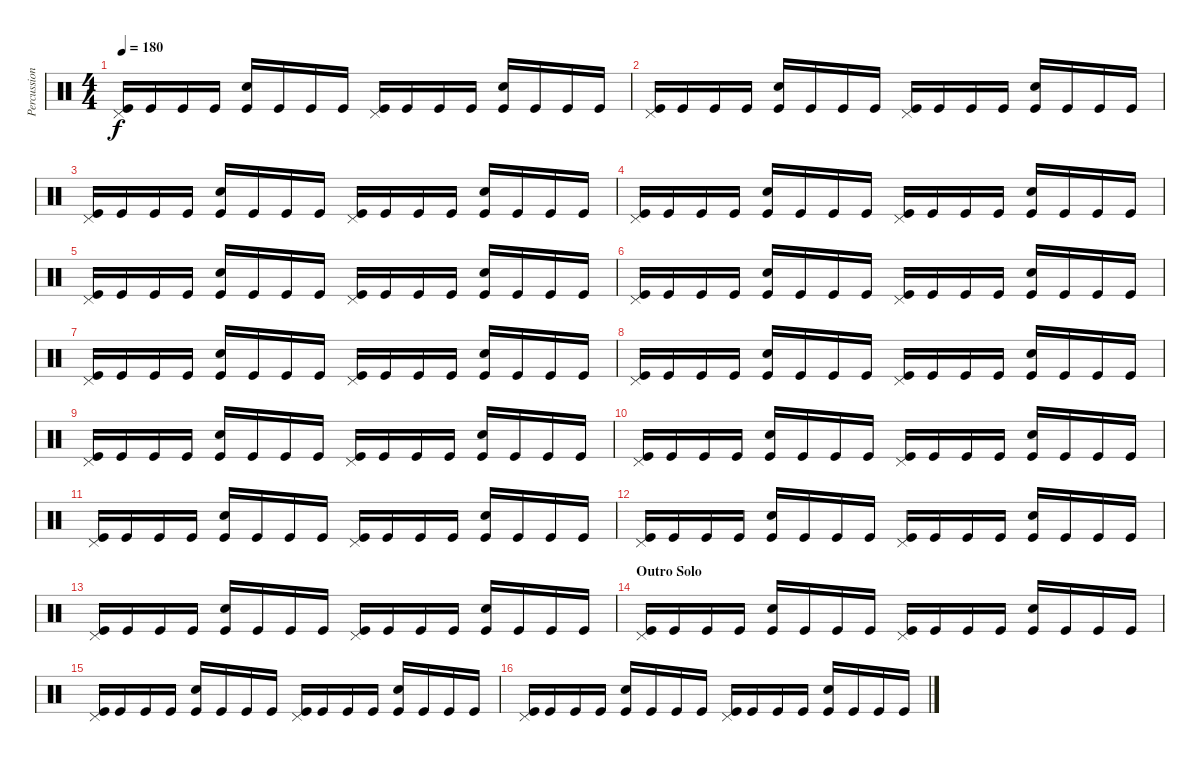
\track ("Percussion" "Percussion") {instrument percussion}
\staff {score}
\articulation defaults
\ts (4 4)
\tempo 180
\clef neutral
\ks c
("Pedal Hi-Hat (hit)" "Kick (hit)").16{dy f} "Kick (hit)".16 "Kick (hit)".16 "Kick (hit)".16 ("Electric Snare (hit)" "Kick (hit)").16 "Kick (hit)".16 "Kick (hit)".16 "Kick (hit)".16 ("Pedal Hi-Hat (hit)" "Kick (hit)").16 "Kick (hit)".16 "Kick (hit)".16 "Kick (hit)".16 ("Electric Snare (hit)" "Kick (hit)").16 "Kick (hit)".16 "Kick (hit)".16 "Kick (hit)".16 |
("Pedal Hi-Hat (hit)" "Kick (hit)").16 "Kick (hit)".16 "Kick (hit)".16 "Kick (hit)".16 ("Electric Snare (hit)" "Kick (hit)").16 "Kick (hit)".16 "Kick (hit)".16 "Kick (hit)".16 ("Pedal Hi-Hat (hit)" "Kick (hit)").16 "Kick (hit)".16 "Kick (hit)".16 "Kick (hit)".16 ("Electric Snare (hit)" "Kick (hit)").16 "Kick (hit)".16 "Kick (hit)".16 "Kick (hit)".16 |
("Pedal Hi-Hat (hit)" "Kick (hit)").16 "Kick (hit)".16 "Kick (hit)".16 "Kick (hit)".16 ("Electric Snare (hit)" "Kick (hit)").16 "Kick (hit)".16 "Kick (hit)".16 "Kick (hit)".16 ("Pedal Hi-Hat (hit)" "Kick (hit)").16 "Kick (hit)".16 "Kick (hit)".16 "Kick (hit)".16 ("Electric Snare (hit)" "Kick (hit)").16 "Kick (hit)".16 "Kick (hit)".16 "Kick (hit)".16 |
("Pedal Hi-Hat (hit)" "Kick (hit)").16 "Kick (hit)".16 "Kick (hit)".16 "Kick (hit)".16 ("Electric Snare (hit)" "Kick (hit)").16 "Kick (hit)".16 "Kick (hit)".16 "Kick (hit)".16 ("Pedal Hi-Hat (hit)" "Kick (hit)").16 "Kick (hit)".16 "Kick (hit)".16 "Kick (hit)".16 ("Electric Snare (hit)" "Kick (hit)").16 "Kick (hit)".16 "Kick (hit)".16 "Kick (hit)".16 |
("Pedal Hi-Hat (hit)" "Kick (hit)").16 "Kick (hit)".16 "Kick (hit)".16 "Kick (hit)".16 ("Electric Snare (hit)" "Kick (hit)").16 "Kick (hit)".16 "Kick (hit)".16 "Kick (hit)".16 ("Pedal Hi-Hat (hit)" "Kick (hit)").16 "Kick (hit)".16 "Kick (hit)".16 "Kick (hit)".16 ("Electric Snare (hit)" "Kick (hit)").16 "Kick (hit)".16 "Kick (hit)".16 "Kick (hit)".16 |
("Pedal Hi-Hat (hit)" "Kick (hit)").16 "Kick (hit)".16 "Kick (hit)".16 "Kick (hit)".16 ("Electric Snare (hit)" "Kick (hit)").16 "Kick (hit)".16 "Kick (hit)".16 "Kick (hit)".16 ("Pedal Hi-Hat (hit)" "Kick (hit)").16 "Kick (hit)".16 "Kick (hit)".16 "Kick (hit)".16 ("Electric Snare (hit)" "Kick (hit)").16 "Kick (hit)".16 "Kick (hit)".16 "Kick (hit)".16 |
("Pedal Hi-Hat (hit)" "Kick (hit)").16 "Kick (hit)".16 "Kick (hit)".16 "Kick (hit)".16 ("Electric Snare (hit)" "Kick (hit)").16 "Kick (hit)".16 "Kick (hit)".16 "Kick (hit)".16 ("Pedal Hi-Hat (hit)" "Kick (hit)").16 "Kick (hit)".16 "Kick (hit)".16 "Kick (hit)".16 ("Electric Snare (hit)" "Kick (hit)").16 "Kick (hit)".16 "Kick (hit)".16 "Kick (hit)".16 |
("Pedal Hi-Hat (hit)" "Kick (hit)").16 "Kick (hit)".16 "Kick (hit)".16 "Kick (hit)".16 ("Electric Snare (hit)" "Kick (hit)").16 "Kick (hit)".16 "Kick (hit)".16 "Kick (hit)".16 ("Pedal Hi-Hat (hit)" "Kick (hit)").16 "Kick (hit)".16 "Kick (hit)".16 "Kick (hit)".16 ("Electric Snare (hit)" "Kick (hit)").16 "Kick (hit)".16 "Kick (hit)".16 "Kick (hit)".16 |
("Pedal Hi-Hat (hit)" "Kick (hit)").16 "Kick (hit)".16 "Kick (hit)".16 "Kick (hit)".16 ("Electric Snare (hit)" "Kick (hit)").16 "Kick (hit)".16 "Kick (hit)".16 "Kick (hit)".16 ("Pedal Hi-Hat (hit)" "Kick (hit)").16 "Kick (hit)".16 "Kick (hit)".16 "Kick (hit)".16 ("Electric Snare (hit)" "Kick (hit)").16 "Kick (hit)".16 "Kick (hit)".16 "Kick (hit)".16 |
("Pedal Hi-Hat (hit)" "Kick (hit)").16 "Kick (hit)".16 "Kick (hit)".16 "Kick (hit)".16 ("Electric Snare (hit)" "Kick (hit)").16 "Kick (hit)".16 "Kick (hit)".16 "Kick (hit)".16 ("Pedal Hi-Hat (hit)" "Kick (hit)").16 "Kick (hit)".16 "Kick (hit)".16 "Kick (hit)".16 ("Electric Snare (hit)" "Kick (hit)").16 "Kick (hit)".16 "Kick (hit)".16 "Kick (hit)".16 |
("Pedal Hi-Hat (hit)" "Kick (hit)").16 "Kick (hit)".16 "Kick (hit)".16 "Kick (hit)".16 ("Electric Snare (hit)" "Kick (hit)").16 "Kick (hit)".16 "Kick (hit)".16 "Kick (hit)".16 ("Pedal Hi-Hat (hit)" "Kick (hit)").16 "Kick (hit)".16 "Kick (hit)".16 "Kick (hit)".16 ("Electric Snare (hit)" "Kick (hit)").16 "Kick (hit)".16 "Kick (hit)".16 "Kick (hit)".16 |
("Pedal Hi-Hat (hit)" "Kick (hit)").16 "Kick (hit)".16 "Kick (hit)".16 "Kick (hit)".16 ("Electric Snare (hit)" "Kick (hit)").16 "Kick (hit)".16 "Kick (hit)".16 "Kick (hit)".16 ("Pedal Hi-Hat (hit)" "Kick (hit)").16 "Kick (hit)".16 "Kick (hit)".16 "Kick (hit)".16 ("Electric Snare (hit)" "Kick (hit)").16 "Kick (hit)".16 "Kick (hit)".16 "Kick (hit)".16 |
("Pedal Hi-Hat (hit)" "Kick (hit)").16 "Kick (hit)".16 "Kick (hit)".16 "Kick (hit)".16 ("Electric Snare (hit)" "Kick (hit)").16 "Kick (hit)".16 "Kick (hit)".16 "Kick (hit)".16 ("Pedal Hi-Hat (hit)" "Kick (hit)").16 "Kick (hit)".16 "Kick (hit)".16 "Kick (hit)".16 ("Electric Snare (hit)" "Kick (hit)").16 "Kick (hit)".16 "Kick (hit)".16 "Kick (hit)".16 |
\section ("" "Outro Solo")
("Pedal Hi-Hat (hit)" "Kick (hit)").16 "Kick (hit)".16 "Kick (hit)".16 "Kick (hit)".16 ("Electric Snare (hit)" "Kick (hit)").16 "Kick (hit)".16 "Kick (hit)".16 "Kick (hit)".16 ("Pedal Hi-Hat (hit)" "Kick (hit)").16 "Kick (hit)".16 "Kick (hit)".16 "Kick (hit)".16 ("Electric Snare (hit)" "Kick (hit)").16 "Kick (hit)".16 "Kick (hit)".16 "Kick (hit)".16 |
("Pedal Hi-Hat (hit)" "Kick (hit)").16 "Kick (hit)".16 "Kick (hit)".16 "Kick (hit)".16 ("Electric Snare (hit)" "Kick (hit)").16 "Kick (hit)".16 "Kick (hit)".16 "Kick (hit)".16 ("Pedal Hi-Hat (hit)" "Kick (hit)").16 "Kick (hit)".16 "Kick (hit)".16 "Kick (hit)".16 ("Electric Snare (hit)" "Kick (hit)").16 "Kick (hit)".16 "Kick (hit)".16 "Kick (hit)".16 |
("Pedal Hi-Hat (hit)" "Kick (hit)").16 "Kick (hit)".16 "Kick (hit)".16 "Kick (hit)".16 ("Electric Snare (hit)" "Kick (hit)").16 "Kick (hit)".16 "Kick (hit)".16 "Kick (hit)".16 ("Pedal Hi-Hat (hit)" "Kick (hit)").16 "Kick (hit)".16 "Kick (hit)".16 "Kick (hit)".16 ("Electric Snare (hit)" "Kick (hit)").16 "Kick (hit)".16 "Kick (hit)".16 "Kick (hit)".16
